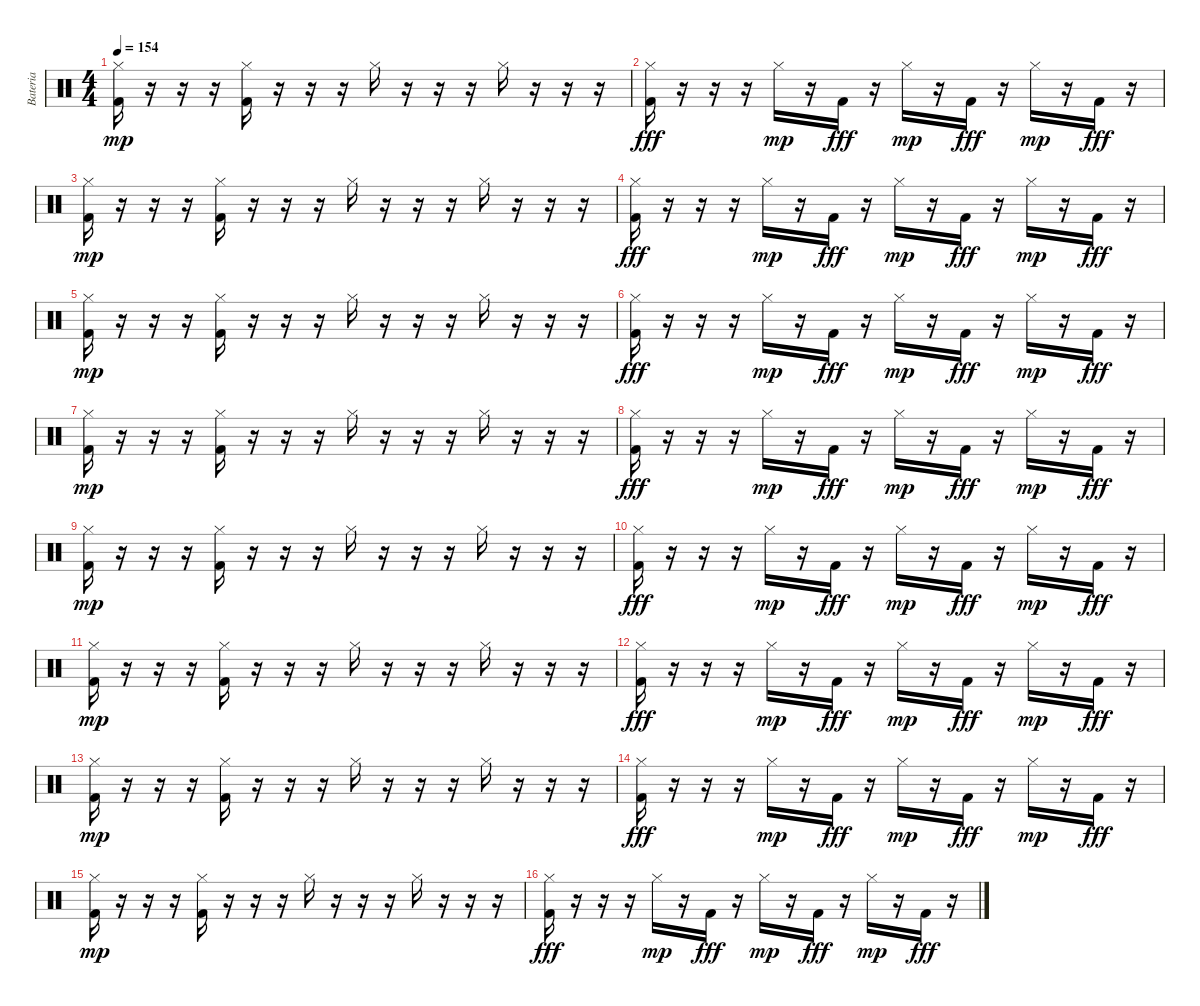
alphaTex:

\track ("Bateria" "Bateria") {instrument percussion}
\staff {score}
\articulation defaults
\ts (4 4)
\tempo 154
\clef neutral
\ks c
("Hi-Hat (closed)" "Kick (hit) 2").16{dy mp} r.16 r.16 r.16 ("Hi-Hat (closed)" "Kick (hit) 2").16 r.16 r.16 r.16 "Hi-Hat (closed)".16 r.16 r.16 r.16 "Hi-Hat (closed)".16 r.16 r.16 r.16 |
("Hi-Hat (closed)" "Kick (hit) 2").16{dy fff} r.16 r.16 r.16 "Hi-Hat (closed)".16{dy mp} r.16 "Kick (hit) 2".16{dy fff} r.16 "Hi-Hat (closed)".16{dy mp} r.16 "Kick (hit) 2".16{dy fff} r.16 "Hi-Hat (closed)".16{dy mp} r.16 "Kick (hit) 2".16{dy fff} r.16 |
("Hi-Hat (closed)" "Kick (hit) 2").16{dy mp} r.16 r.16 r.16 ("Hi-Hat (closed)" "Kick (hit) 2").16 r.16 r.16 r.16 "Hi-Hat (closed)".16 r.16 r.16 r.16 "Hi-Hat (closed)".16 r.16 r.16 r.16 |
("Hi-Hat (closed)" "Kick (hit) 2").16{dy fff} r.16 r.16 r.16 "Hi-Hat (closed)".16{dy mp} r.16 "Kick (hit) 2".16{dy fff} r.16 "Hi-Hat (closed)".16{dy mp} r.16 "Kick (hit) 2".16{dy fff} r.16 "Hi-Hat (closed)".16{dy mp} r.16 "Kick (hit) 2".16{dy fff} r.16 |
("Hi-Hat (closed)" "Kick (hit) 2").16{dy mp} r.16 r.16 r.16 ("Hi-Hat (closed)" "Kick (hit) 2").16 r.16 r.16 r.16 "Hi-Hat (closed)".16 r.16 r.16 r.16 "Hi-Hat (closed)".16 r.16 r.16 r.16 |
("Hi-Hat (closed)" "Kick (hit) 2").16{dy fff} r.16 r.16 r.16 "Hi-Hat (closed)".16{dy mp} r.16 "Kick (hit) 2".16{dy fff} r.16 "Hi-Hat (closed)".16{dy mp} r.16 "Kick (hit) 2".16{dy fff} r.16 "Hi-Hat (closed)".16{dy mp} r.16 "Kick (hit) 2".16{dy fff} r.16 |
("Hi-Hat (closed)" "Kick (hit) 2").16{dy mp} r.16 r.16 r.16 ("Hi-Hat (closed)" "Kick (hit) 2").16 r.16 r.16 r.16 "Hi-Hat (closed)".16 r.16 r.16 r.16 "Hi-Hat (closed)".16 r.16 r.16 r.16 |
("Hi-Hat (closed)" "Kick (hit) 2").16{dy fff} r.16 r.16 r.16 "Hi-Hat (closed)".16{dy mp} r.16 "Kick (hit) 2".16{dy fff} r.16 "Hi-Hat (closed)".16{dy mp} r.16 "Kick (hit) 2".16{dy fff} r.16 "Hi-Hat (closed)".16{dy mp} r.16 "Kick (hit) 2".16{dy fff} r.16 |
("Hi-Hat (closed)" "Kick (hit) 2").16{dy mp} r.16 r.16 r.16 ("Hi-Hat (closed)" "Kick (hit) 2").16 r.16 r.16 r.16 "Hi-Hat (closed)".16 r.16 r.16 r.16 "Hi-Hat (closed)".16 r.16 r.16 r.16 |
("Hi-Hat (closed)" "Kick (hit) 2").16{dy fff} r.16 r.16 r.16 "Hi-Hat (closed)".16{dy mp} r.16 "Kick (hit) 2".16{dy fff} r.16 "Hi-Hat (closed)".16{dy mp} r.16 "Kick (hit) 2".16{dy fff} r.16 "Hi-Hat (closed)".16{dy mp} r.16 "Kick (hit) 2".16{dy fff} r.16 |
("Hi-Hat (closed)" "Kick (hit) 2").16{dy mp} r.16 r.16 r.16 ("Hi-Hat (closed)" "Kick (hit) 2").16 r.16 r.16 r.16 "Hi-Hat (closed)".16 r.16 r.16 r.16 "Hi-Hat (closed)".16 r.16 r.16 r.16 |
("Hi-Hat (closed)" "Kick (hit) 2").16{dy fff} r.16 r.16 r.16 "Hi-Hat (closed)".16{dy mp} r.16 "Kick (hit) 2".16{dy fff} r.16 "Hi-Hat (closed)".16{dy mp} r.16 "Kick (hit) 2".16{dy fff} r.16 "Hi-Hat (closed)".16{dy mp} r.16 "Kick (hit) 2".16{dy fff} r.16 |
("Hi-Hat (closed)" "Kick (hit) 2").16{dy mp} r.16 r.16 r.16 ("Hi-Hat (closed)" "Kick (hit) 2").16 r.16 r.16 r.16 "Hi-Hat (closed)".16 r.16 r.16 r.16 "Hi-Hat (closed)".16 r.16 r.16 r.16 |
("Hi-Hat (closed)" "Kick (hit) 2").16{dy fff} r.16 r.16 r.16 "Hi-Hat (closed)".16{dy mp} r.16 "Kick (hit) 2".16{dy fff} r.16 "Hi-Hat (closed)".16{dy mp} r.16 "Kick (hit) 2".16{dy fff} r.16 "Hi-Hat (closed)".16{dy mp} r.16 "Kick (hit) 2".16{dy fff} r.16 |
("Hi-Hat (closed)" "Kick (hit) 2").16{dy mp} r.16 r.16 r.16 ("Hi-Hat (closed)" "Kick (hit) 2").16 r.16 r.16 r.16 "Hi-Hat (closed)".16 r.16 r.16 r.16 "Hi-Hat (closed)".16 r.16 r.16 r.16 |
("Hi-Hat (closed)" "Kick (hit) 2").16{dy fff} r.16 r.16 r.16 "Hi-Hat (closed)".16{dy mp} r.16 "Kick (hit) 2".16{dy fff} r.16 "Hi-Hat (closed)".16{dy mp} r.16 "Kick (hit) 2".16{dy fff} r.16 "Hi-Hat (closed)".16{dy mp} r.16 "Kick (hit) 2".16{dy fff} r.16
